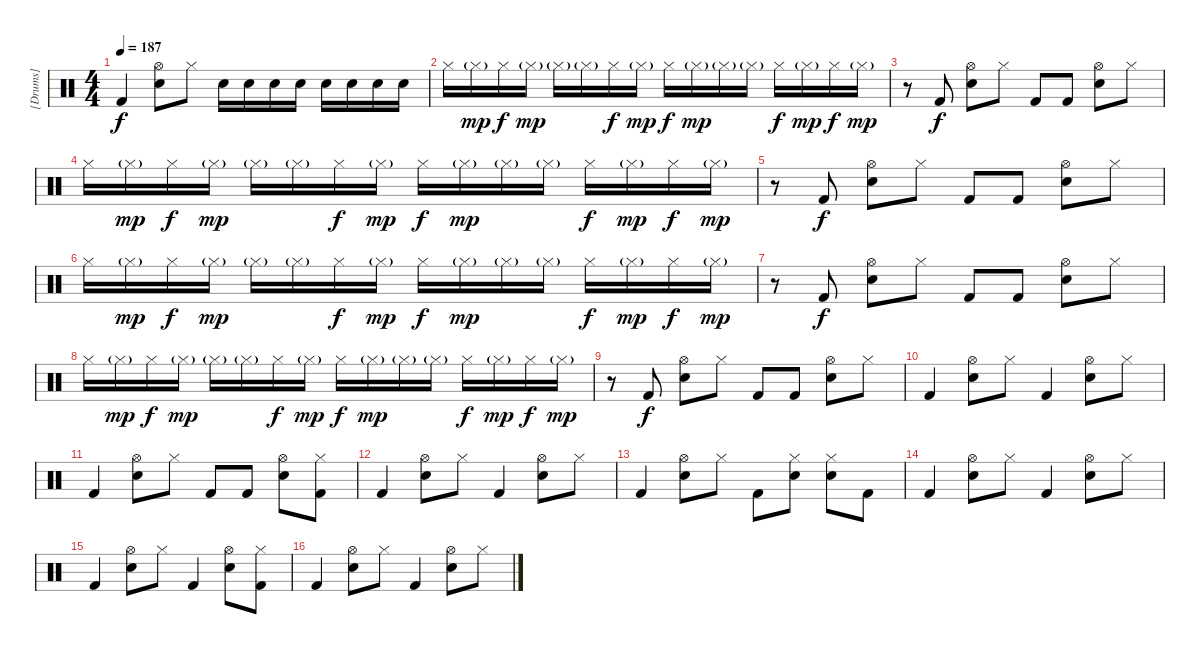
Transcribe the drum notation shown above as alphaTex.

\track ("[Drums]" "[Drums]") {instrument percussion}
\staff {score}
\articulation defaults
\ts (4 4)
\tempo 187
\clef neutral
\ks c "Kick (hit) 2".4{dy f}
("Hi-Hat (open)" "Electric Snare (hit)").8 "Hi-Hat (closed)".8 "Snare (hit) 2".16 "Snare (hit) 2".16 "Snare (hit) 2".16 "Snare (hit) 2".16 "Snare (hit) 2".16 "Snare (hit) 2".16 "Snare (hit) 2".16 "Snare (hit) 2".16 |
"Hi-Hat (closed)".16 "Hi-Hat (closed)"{g}.16{dy mp} "Hi-Hat (closed)".16{dy f} "Hi-Hat (closed)"{g}.16{dy mp} "Hi-Hat (closed)"{g}.16 "Hi-Hat (closed)"{g}.16 "Hi-Hat (closed)".16{dy f} "Hi-Hat (closed)"{g}.16{dy mp} "Hi-Hat (closed)".16{dy f} "Hi-Hat (closed)"{g}.16{dy mp} "Hi-Hat (closed)"{g}.16 "Hi-Hat (closed)"{g}.16 "Hi-Hat (closed)".16{dy f} "Hi-Hat (closed)"{g}.16{dy mp} "Hi-Hat (closed)".16{dy f} "Hi-Hat (closed)"{g}.16{dy mp} |
r.8 "Kick (hit) 2".8{dy f} ("Hi-Hat (open)" "Electric Snare (hit)").8 "Hi-Hat (closed)".8 "Kick (hit) 2".8 "Kick (hit) 2".8 ("Hi-Hat (open)" "Electric Snare (hit)").8 "Hi-Hat (closed)".8 |
"Hi-Hat (closed)".16 "Hi-Hat (closed)"{g}.16{dy mp} "Hi-Hat (closed)".16{dy f} "Hi-Hat (closed)"{g}.16{dy mp} "Hi-Hat (closed)"{g}.16 "Hi-Hat (closed)"{g}.16 "Hi-Hat (closed)".16{dy f} "Hi-Hat (closed)"{g}.16{dy mp} "Hi-Hat (closed)".16{dy f} "Hi-Hat (closed)"{g}.16{dy mp} "Hi-Hat (closed)"{g}.16 "Hi-Hat (closed)"{g}.16 "Hi-Hat (closed)".16{dy f} "Hi-Hat (closed)"{g}.16{dy mp} "Hi-Hat (closed)".16{dy f} "Hi-Hat (closed)"{g}.16{dy mp} |
r.8 "Kick (hit) 2".8{dy f} ("Hi-Hat (open)" "Electric Snare (hit)").8 "Hi-Hat (closed)".8 "Kick (hit) 2".8 "Kick (hit) 2".8 ("Hi-Hat (open)" "Electric Snare (hit)").8 "Hi-Hat (closed)".8 |
"Hi-Hat (closed)".16 "Hi-Hat (closed)"{g}.16{dy mp} "Hi-Hat (closed)".16{dy f} "Hi-Hat (closed)"{g}.16{dy mp} "Hi-Hat (closed)"{g}.16 "Hi-Hat (closed)"{g}.16 "Hi-Hat (closed)".16{dy f} "Hi-Hat (closed)"{g}.16{dy mp} "Hi-Hat (closed)".16{dy f} "Hi-Hat (closed)"{g}.16{dy mp} "Hi-Hat (closed)"{g}.16 "Hi-Hat (closed)"{g}.16 "Hi-Hat (closed)".16{dy f} "Hi-Hat (closed)"{g}.16{dy mp} "Hi-Hat (closed)".16{dy f} "Hi-Hat (closed)"{g}.16{dy mp} |
r.8 "Kick (hit) 2".8{dy f} ("Hi-Hat (open)" "Electric Snare (hit)").8 "Hi-Hat (closed)".8 "Kick (hit) 2".8 "Kick (hit) 2".8 ("Hi-Hat (open)" "Electric Snare (hit)").8 "Hi-Hat (closed)".8 |
"Hi-Hat (closed)".16 "Hi-Hat (closed)"{g}.16{dy mp} "Hi-Hat (closed)".16{dy f} "Hi-Hat (closed)"{g}.16{dy mp} "Hi-Hat (closed)"{g}.16 "Hi-Hat (closed)"{g}.16 "Hi-Hat (closed)".16{dy f} "Hi-Hat (closed)"{g}.16{dy mp} "Hi-Hat (closed)".16{dy f} "Hi-Hat (closed)"{g}.16{dy mp} "Hi-Hat (closed)"{g}.16 "Hi-Hat (closed)"{g}.16 "Hi-Hat (closed)".16{dy f} "Hi-Hat (closed)"{g}.16{dy mp} "Hi-Hat (closed)".16{dy f} "Hi-Hat (closed)"{g}.16{dy mp} |
r.8 "Kick (hit) 2".8{dy f} ("Hi-Hat (open)" "Electric Snare (hit)").8 "Hi-Hat (closed)".8 "Kick (hit) 2".8 "Kick (hit) 2".8 ("Hi-Hat (open)" "Electric Snare (hit)").8 "Hi-Hat (closed)".8 |
"Kick (hit) 2".4 ("Hi-Hat (open)" "Electric Snare (hit)").8 "Hi-Hat (closed)".8 "Kick (hit) 2".4 ("Hi-Hat (open)" "Electric Snare (hit)").8 "Hi-Hat (closed)".8 |
"Kick (hit) 2".4 ("Hi-Hat (open)" "Electric Snare (hit)").8 "Hi-Hat (closed)".8 "Kick (hit) 2".8 "Kick (hit) 2".8 ("Hi-Hat (open)" "Electric Snare (hit)").8 ("Hi-Hat (closed)" "Kick (hit) 2").8 |
"Kick (hit) 2".4 ("Hi-Hat (open)" "Electric Snare (hit)").8 "Hi-Hat (closed)".8 "Kick (hit) 2".4 ("Hi-Hat (open)" "Electric Snare (hit)").8 "Hi-Hat (closed)".8 |
"Kick (hit) 2".4 ("Hi-Hat (open)" "Electric Snare (hit)").8 "Hi-Hat (closed)".8 "Kick (hit) 2".8 ("Hi-Hat (closed)" "Electric Snare (hit)").8 ("Hi-Hat (closed)" "Electric Snare (hit)").8 "Kick (hit) 2".8 |
"Kick (hit) 2".4 ("Hi-Hat (open)" "Electric Snare (hit)").8 "Hi-Hat (closed)".8 "Kick (hit) 2".4 ("Hi-Hat (open)" "Electric Snare (hit)").8 "Hi-Hat (closed)".8 |
"Kick (hit) 2".4 ("Hi-Hat (open)" "Electric Snare (hit)").8 "Hi-Hat (closed)".8 "Kick (hit) 2".4 ("Hi-Hat (open)" "Electric Snare (hit)").8 ("Hi-Hat (closed)" "Kick (hit) 2").8 |
"Kick (hit) 2".4 ("Hi-Hat (open)" "Electric Snare (hit)").8 "Hi-Hat (closed)".8 "Kick (hit) 2".4 ("Hi-Hat (open)" "Electric Snare (hit)").8 "Hi-Hat (closed)".8
